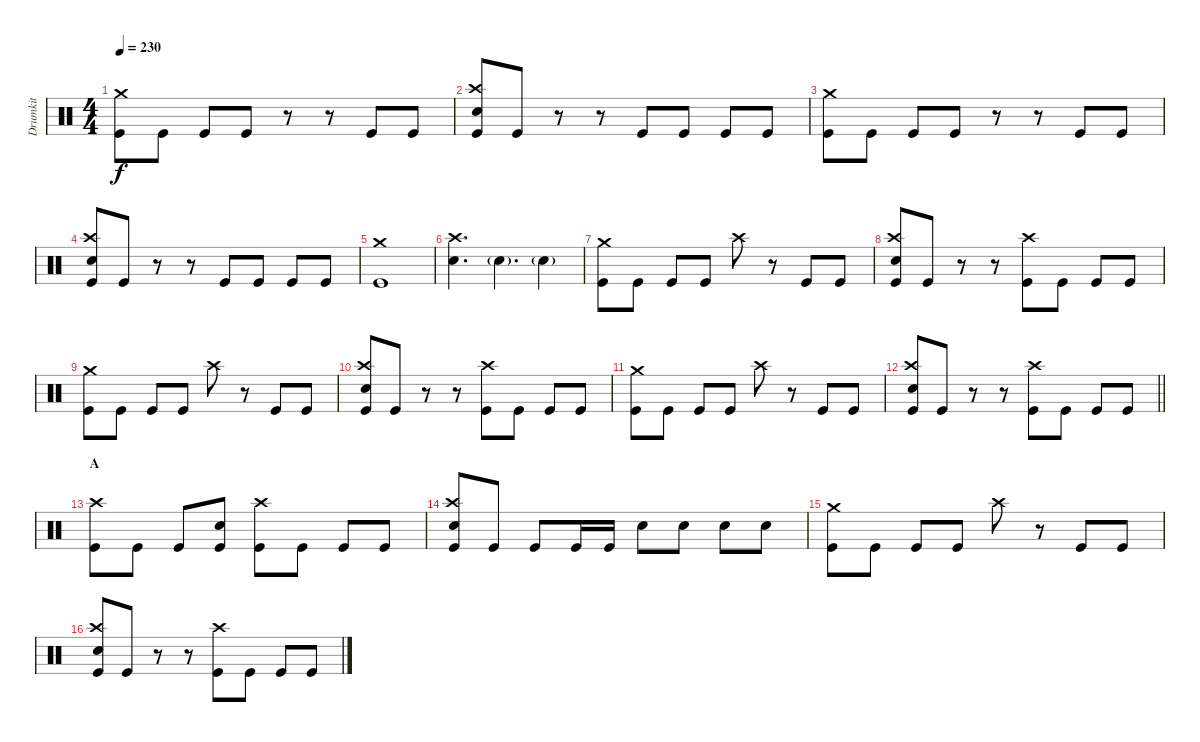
\track ("Drumkit" "Drumkit") {instrument percussion}
\staff {score}
\articulation defaults
\ts (4 4)
\tempo 230
\clef neutral
\ks c
("Crash medium (hit)" "Kick (hit)").8{dy f} "Kick (hit)".8 "Kick (hit)".8 "Kick (hit)".8 r.8 r.8 "Kick (hit)".8 "Kick (hit)".8 |
("Crash high (hit)" "Snare (hit) 2" "Kick (hit)").8 "Kick (hit)".8 r.8 r.8 "Kick (hit)".8 "Kick (hit)".8 "Kick (hit)".8 "Kick (hit)".8 |
("Crash medium (hit)" "Kick (hit)").8 "Kick (hit)".8 "Kick (hit)".8 "Kick (hit)".8 r.8 r.8 "Kick (hit)".8 "Kick (hit)".8 |
("Crash high (hit)" "Snare (hit) 2" "Kick (hit)").8 "Kick (hit)".8 r.8 r.8 "Kick (hit)".8 "Kick (hit)".8 "Kick (hit)".8 "Kick (hit)".8 |
("Crash medium (hit)" "Kick (hit)").1 |
("Crash high (hit)" "Snare (hit) 2").4{d} "Snare (hit) 2"{g}.4{d} "Snare (hit) 2"{g}.4 |
("Crash medium (hit)" "Kick (hit)").8 "Kick (hit)".8 "Kick (hit)".8 "Kick (hit)".8 "Crash high (hit)".8 r.8 "Kick (hit)".8 "Kick (hit)".8 |
("Crash high (hit)" "Snare (hit) 2" "Kick (hit)").8 "Kick (hit)".8 r.8 r.8 ("Crash high (hit)" "Kick (hit)").8 "Kick (hit)".8 "Kick (hit)".8 "Kick (hit)".8 |
("Crash medium (hit)" "Kick (hit)").8 "Kick (hit)".8 "Kick (hit)".8 "Kick (hit)".8 "Crash high (hit)".8 r.8 "Kick (hit)".8 "Kick (hit)".8 |
("Crash high (hit)" "Snare (hit) 2" "Kick (hit)").8 "Kick (hit)".8 r.8 r.8 ("Crash high (hit)" "Kick (hit)").8 "Kick (hit)".8 "Kick (hit)".8 "Kick (hit)".8 |
("Crash medium (hit)" "Kick (hit)").8 "Kick (hit)".8 "Kick (hit)".8 "Kick (hit)".8 "Crash high (hit)".8 r.8 "Kick (hit)".8 "Kick (hit)".8 |
\barLineRight lightlight
("Crash high (hit)" "Snare (hit) 2" "Kick (hit)").8 "Kick (hit)".8 r.8 r.8 ("Crash high (hit)" "Kick (hit)").8 "Kick (hit)".8 "Kick (hit)".8 "Kick (hit)".8 |
\section ("" "A")
("Crash high (hit)" "Kick (hit)").8 "Kick (hit)".8 "Kick (hit)".8 ("Snare (hit) 2" "Kick (hit)").8 ("Crash high (hit)" "Kick (hit)").8 "Kick (hit)".8 "Kick (hit)".8 "Kick (hit)".8 |
("Crash high (hit)" "Snare (hit) 2" "Kick (hit)").8 "Kick (hit)".8 "Kick (hit)".8 "Kick (hit)".16 "Kick (hit)".16 "Snare (hit) 2".8 "Snare (hit) 2".8 "Snare (hit) 2".8 "Snare (hit) 2".8 |
("Crash medium (hit)" "Kick (hit)").8 "Kick (hit)".8 "Kick (hit)".8 "Kick (hit)".8 "Crash high (hit)".8 r.8 "Kick (hit)".8 "Kick (hit)".8 |
("Crash high (hit)" "Snare (hit) 2" "Kick (hit)").8 "Kick (hit)".8 r.8 r.8 ("Crash high (hit)" "Kick (hit)").8 "Kick (hit)".8 "Kick (hit)".8 "Kick (hit)".8
